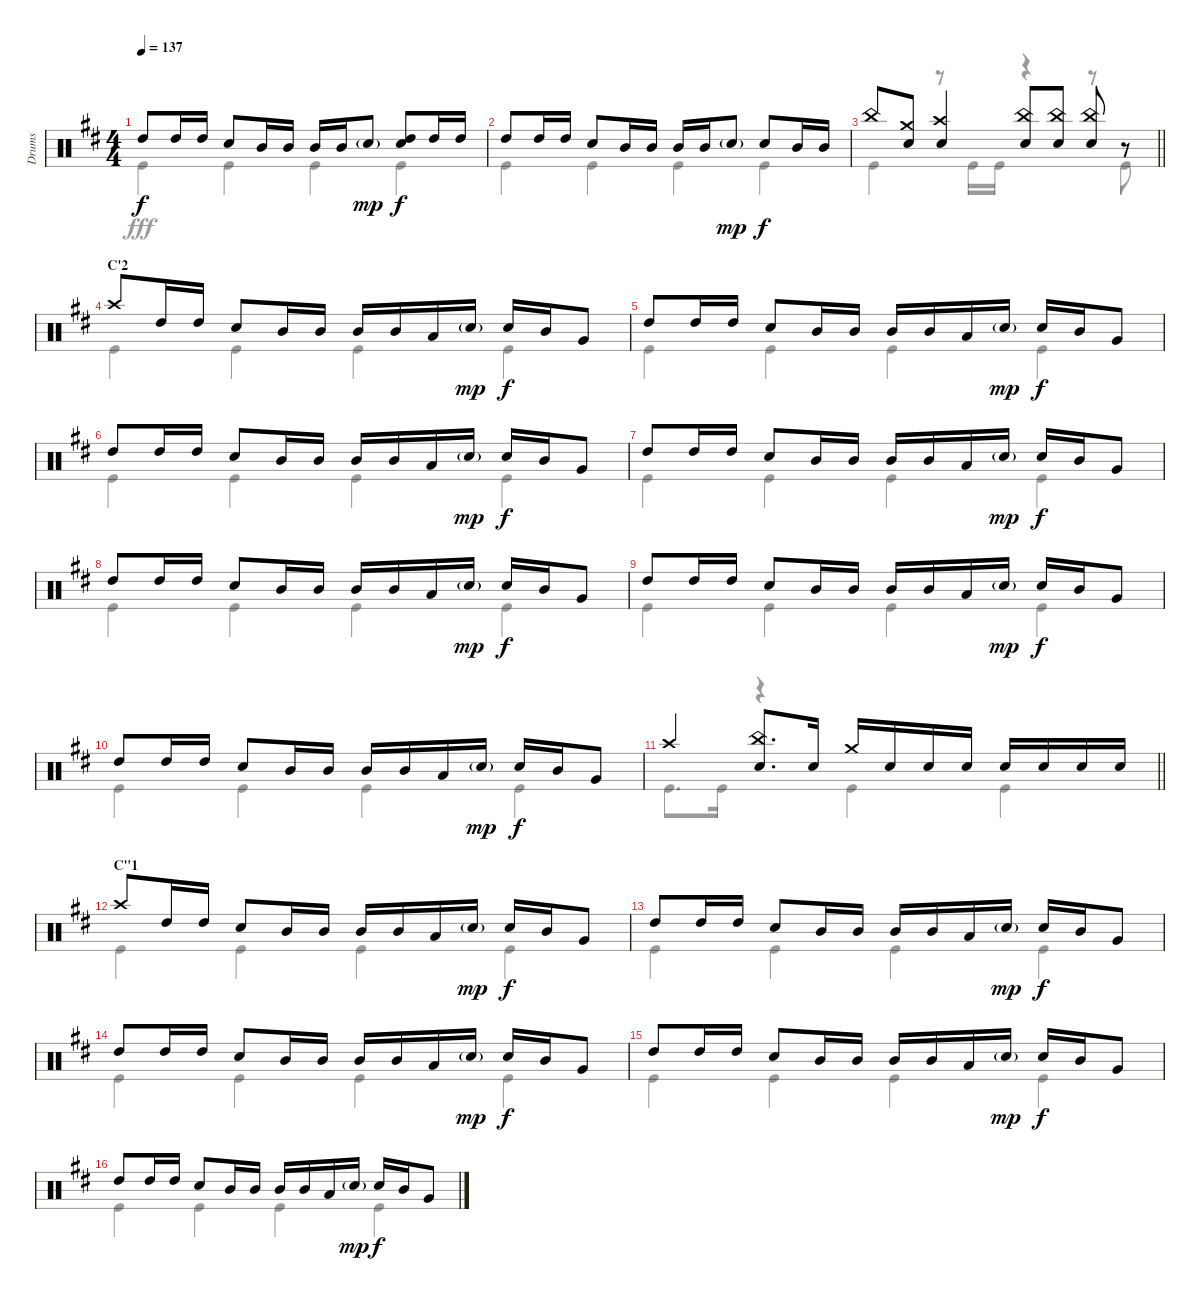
\track ("Drums" "Drums") {instrument percussion}
\staff {score}
\articulation defaults
\voice
\ts (4 4)
\tempo 137
\clef neutral
\ks d "High Tom (hit)".8{dy f} "High Tom (hit)".16 "High Tom (hit)".16 "Snare (hit) 2".8 "Mid Tom (hit)".16 "Mid Tom (hit)".16 "Mid Tom (hit)".16 "Mid Tom (hit)".16 "Snare (hit) 2"{g}.8{dy mp}
("Snare (hit) 2" "High Tom (hit)").8{dy f} "High Tom (hit)".16 "High Tom (hit)".16 |
"High Tom (hit)".8 "High Tom (hit)".16 "High Tom (hit)".16 "Snare (hit) 2".8 "Mid Tom (hit)".16 "Mid Tom (hit)".16 "Mid Tom (hit)".16 "Mid Tom (hit)".16 "Snare (hit) 2"{g}.8{dy mp} "Snare (hit) 2".8{dy f} "Mid Tom (hit)".16 "Mid Tom (hit)".16 |
\barLineRight lightlight "China (hit)".8
("Crash medium (hit)" "Snare (hit) 2").8 ("Crash high (hit)" "Snare (hit) 2").4 ("China (hit)" "Snare (hit) 2").8 ("China (hit)" "Snare (hit) 2").8 ("China (hit)" "Snare (hit) 2").8 r.8 |
\section ("" "C'2")
"Crash high (hit)".8 "High Tom (hit)".16 "High Tom (hit)".16 "Snare (hit) 2".8 "Mid Tom (hit)".16 "Mid Tom (hit)".16 "Mid Tom (hit)".16 "Mid Tom (hit)".16 "Low Tom (hit)".16 "Snare (hit) 2"{g}.16{dy mp} "Snare (hit) 2".16{dy f} "Mid Tom (hit)".16 "Very Low Tom (hit)".8 |
"High Tom (hit)".8 "High Tom (hit)".16 "High Tom (hit)".16 "Snare (hit) 2".8 "Mid Tom (hit)".16 "Mid Tom (hit)".16 "Mid Tom (hit)".16 "Mid Tom (hit)".16 "Low Tom (hit)".16 "Snare (hit) 2"{g}.16{dy mp} "Snare (hit) 2".16{dy f} "Mid Tom (hit)".16 "Very Low Tom (hit)".8 |
"High Tom (hit)".8 "High Tom (hit)".16 "High Tom (hit)".16 "Snare (hit) 2".8 "Mid Tom (hit)".16 "Mid Tom (hit)".16 "Mid Tom (hit)".16 "Mid Tom (hit)".16 "Low Tom (hit)".16 "Snare (hit) 2"{g}.16{dy mp} "Snare (hit) 2".16{dy f} "Mid Tom (hit)".16 "Very Low Tom (hit)".8 |
"High Tom (hit)".8 "High Tom (hit)".16 "High Tom (hit)".16 "Snare (hit) 2".8 "Mid Tom (hit)".16 "Mid Tom (hit)".16 "Mid Tom (hit)".16 "Mid Tom (hit)".16 "Low Tom (hit)".16 "Snare (hit) 2"{g}.16{dy mp} "Snare (hit) 2".16{dy f} "Mid Tom (hit)".16 "Very Low Tom (hit)".8 |
"High Tom (hit)".8 "High Tom (hit)".16 "High Tom (hit)".16 "Snare (hit) 2".8 "Mid Tom (hit)".16 "Mid Tom (hit)".16 "Mid Tom (hit)".16 "Mid Tom (hit)".16 "Low Tom (hit)".16 "Snare (hit) 2"{g}.16{dy mp} "Snare (hit) 2".16{dy f} "Mid Tom (hit)".16 "Very Low Tom (hit)".8 |
"High Tom (hit)".8 "High Tom (hit)".16 "High Tom (hit)".16 "Snare (hit) 2".8 "Mid Tom (hit)".16 "Mid Tom (hit)".16 "Mid Tom (hit)".16 "Mid Tom (hit)".16 "Low Tom (hit)".16 "Snare (hit) 2"{g}.16{dy mp} "Snare (hit) 2".16{dy f} "Mid Tom (hit)".16 "Very Low Tom (hit)".8 |
"High Tom (hit)".8 "High Tom (hit)".16 "High Tom (hit)".16 "Snare (hit) 2".8 "Mid Tom (hit)".16 "Mid Tom (hit)".16 "Mid Tom (hit)".16 "Mid Tom (hit)".16 "Low Tom (hit)".16 "Snare (hit) 2"{g}.16{dy mp} "Snare (hit) 2".16{dy f} "Mid Tom (hit)".16 "Very Low Tom (hit)".8 |
\barLineRight lightlight "Crash high (hit)".4
("China (hit)" "Snare (hit) 2").8{d} "Snare (hit) 2".16 "Crash medium (hit)".16 "Snare (hit) 2".16 "Snare (hit) 2".16 "Snare (hit) 2".16 "Snare (hit) 2".16 "Snare (hit) 2".16 "Snare (hit) 2".16 "Snare (hit) 2".16 |
\section ("" "C\"1")
"Crash high (hit)".8 "High Tom (hit)".16 "High Tom (hit)".16 "Snare (hit) 2".8 "Mid Tom (hit)".16 "Mid Tom (hit)".16 "Mid Tom (hit)".16 "Mid Tom (hit)".16 "Low Tom (hit)".16 "Snare (hit) 2"{g}.16{dy mp} "Snare (hit) 2".16{dy f} "Mid Tom (hit)".16 "Very Low Tom (hit)".8 |
"High Tom (hit)".8 "High Tom (hit)".16 "High Tom (hit)".16 "Snare (hit) 2".8 "Mid Tom (hit)".16 "Mid Tom (hit)".16 "Mid Tom (hit)".16 "Mid Tom (hit)".16 "Low Tom (hit)".16 "Snare (hit) 2"{g}.16{dy mp} "Snare (hit) 2".16{dy f} "Mid Tom (hit)".16 "Very Low Tom (hit)".8 |
"High Tom (hit)".8 "High Tom (hit)".16 "High Tom (hit)".16 "Snare (hit) 2".8 "Mid Tom (hit)".16 "Mid Tom (hit)".16 "Mid Tom (hit)".16 "Mid Tom (hit)".16 "Low Tom (hit)".16 "Snare (hit) 2"{g}.16{dy mp} "Snare (hit) 2".16{dy f} "Mid Tom (hit)".16 "Very Low Tom (hit)".8 |
"High Tom (hit)".8 "High Tom (hit)".16 "High Tom (hit)".16 "Snare (hit) 2".8 "Mid Tom (hit)".16 "Mid Tom (hit)".16 "Mid Tom (hit)".16 "Mid Tom (hit)".16 "Low Tom (hit)".16 "Snare (hit) 2"{g}.16{dy mp} "Snare (hit) 2".16{dy f} "Mid Tom (hit)".16 "Very Low Tom (hit)".8 |
"High Tom (hit)".8 "High Tom (hit)".16 "High Tom (hit)".16 "Snare (hit) 2".8 "Mid Tom (hit)".16 "Mid Tom (hit)".16 "Mid Tom (hit)".16 "Mid Tom (hit)".16 "Low Tom (hit)".16 "Snare (hit) 2"{g}.16{dy mp} "Snare (hit) 2".16{dy f} "Mid Tom (hit)".16 "Very Low Tom (hit)".8
\voice
\clef neutral
\ottava regular
\simile none
\ks d "Kick (hit)".4{dy fff} "Kick (hit)".4 "Kick (hit)".4 "Kick (hit)".4
|
"Kick (hit)".4 "Kick (hit)".4 "Kick (hit)".4 "Kick (hit)".4 |
\barLineRight lightlight "Kick (hit)".4
r.8 "Kick (hit)".16 "Kick (hit)".16 r.4 r.8 "Kick (hit)".8 |
"Kick (hit)".4 "Kick (hit)".4 "Kick (hit)".4 "Kick (hit)".4 |
"Kick (hit)".4 "Kick (hit)".4 "Kick (hit)".4 "Kick (hit)".4 |
"Kick (hit)".4 "Kick (hit)".4 "Kick (hit)".4 "Kick (hit)".4 |
"Kick (hit)".4 "Kick (hit)".4 "Kick (hit)".4 "Kick (hit)".4 |
"Kick (hit)".4 "Kick (hit)".4 "Kick (hit)".4 "Kick (hit)".4 |
"Kick (hit)".4 "Kick (hit)".4 "Kick (hit)".4 "Kick (hit)".4 |
"Kick (hit)".4 "Kick (hit)".4 "Kick (hit)".4 "Kick (hit)".4 |
\barLineRight lightlight "Kick (hit)".8{d} "Kick (hit)".16
r.4 "Kick (hit)".4 "Kick (hit)".4 |
"Kick (hit)".4 "Kick (hit)".4 "Kick (hit)".4 "Kick (hit)".4 |
"Kick (hit)".4 "Kick (hit)".4 "Kick (hit)".4 "Kick (hit)".4 |
"Kick (hit)".4 "Kick (hit)".4 "Kick (hit)".4 "Kick (hit)".4 |
"Kick (hit)".4 "Kick (hit)".4 "Kick (hit)".4 "Kick (hit)".4 |
"Kick (hit)".4 "Kick (hit)".4 "Kick (hit)".4 "Kick (hit)".4
